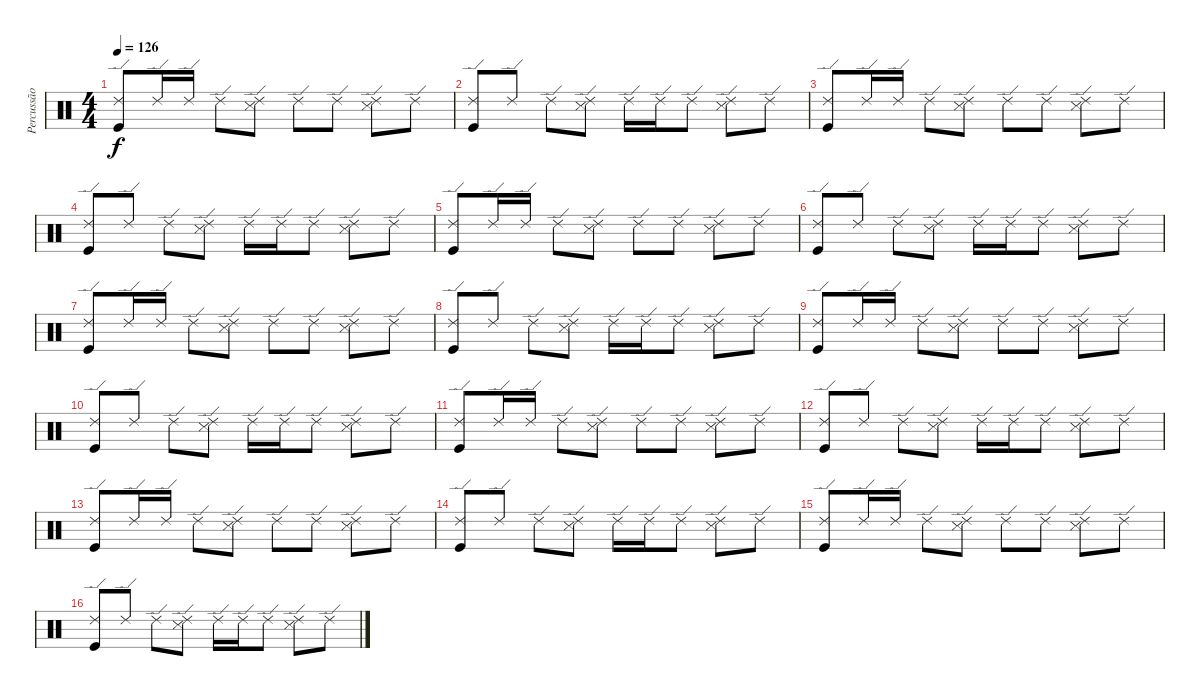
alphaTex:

\track ("Percussão" "Percussão") {instrument percussion}
\staff {score}
\articulation defaults
\ts (4 4)
\tempo 126
\clef neutral
\ks c
("Ride (edge) 2" "Kick (hit)").8{dy f} "Ride (edge) 2".16 "Ride (edge) 2".16 "Ride (edge) 2".8 ("Ride (edge) 2" "Snare (side stick) 3").8 "Ride (edge) 2".8 "Ride (edge) 2".8 ("Ride (edge) 2" "Snare (side stick) 3").8 "Ride (edge) 2".8 |
("Ride (edge) 2" "Kick (hit)").8 "Ride (edge) 2".8 "Ride (edge) 2".8 ("Ride (edge) 2" "Snare (side stick) 3").8 "Ride (edge) 2".16 "Ride (edge) 2".16 "Ride (edge) 2".8 ("Ride (edge) 2" "Snare (side stick) 3").8 "Ride (edge) 2".8 |
("Ride (edge) 2" "Kick (hit)").8 "Ride (edge) 2".16 "Ride (edge) 2".16 "Ride (edge) 2".8 ("Ride (edge) 2" "Snare (side stick) 3").8 "Ride (edge) 2".8 "Ride (edge) 2".8 ("Ride (edge) 2" "Snare (side stick) 3").8 "Ride (edge) 2".8 |
("Ride (edge) 2" "Kick (hit)").8 "Ride (edge) 2".8 "Ride (edge) 2".8 ("Ride (edge) 2" "Snare (side stick) 3").8 "Ride (edge) 2".16 "Ride (edge) 2".16 "Ride (edge) 2".8 ("Ride (edge) 2" "Snare (side stick) 3").8 "Ride (edge) 2".8 |
("Ride (edge) 2" "Kick (hit)").8 "Ride (edge) 2".16 "Ride (edge) 2".16 "Ride (edge) 2".8 ("Ride (edge) 2" "Snare (side stick) 3").8 "Ride (edge) 2".8 "Ride (edge) 2".8 ("Ride (edge) 2" "Snare (side stick) 3").8 "Ride (edge) 2".8 |
("Ride (edge) 2" "Kick (hit)").8 "Ride (edge) 2".8 "Ride (edge) 2".8 ("Ride (edge) 2" "Snare (side stick) 3").8 "Ride (edge) 2".16 "Ride (edge) 2".16 "Ride (edge) 2".8 ("Ride (edge) 2" "Snare (side stick) 3").8 "Ride (edge) 2".8 |
("Ride (edge) 2" "Kick (hit)").8 "Ride (edge) 2".16 "Ride (edge) 2".16 "Ride (edge) 2".8 ("Ride (edge) 2" "Snare (side stick) 3").8 "Ride (edge) 2".8 "Ride (edge) 2".8 ("Ride (edge) 2" "Snare (side stick) 3").8 "Ride (edge) 2".8 |
("Ride (edge) 2" "Kick (hit)").8 "Ride (edge) 2".8 "Ride (edge) 2".8 ("Ride (edge) 2" "Snare (side stick) 3").8 "Ride (edge) 2".16 "Ride (edge) 2".16 "Ride (edge) 2".8 ("Ride (edge) 2" "Snare (side stick) 3").8 "Ride (edge) 2".8 |
("Ride (edge) 2" "Kick (hit)").8 "Ride (edge) 2".16 "Ride (edge) 2".16 "Ride (edge) 2".8 ("Ride (edge) 2" "Snare (side stick) 3").8 "Ride (edge) 2".8 "Ride (edge) 2".8 ("Ride (edge) 2" "Snare (side stick) 3").8 "Ride (edge) 2".8 |
("Ride (edge) 2" "Kick (hit)").8 "Ride (edge) 2".8 "Ride (edge) 2".8 ("Ride (edge) 2" "Snare (side stick) 3").8 "Ride (edge) 2".16 "Ride (edge) 2".16 "Ride (edge) 2".8 ("Ride (edge) 2" "Snare (side stick) 3").8 "Ride (edge) 2".8 |
("Ride (edge) 2" "Kick (hit)").8 "Ride (edge) 2".16 "Ride (edge) 2".16 "Ride (edge) 2".8 ("Ride (edge) 2" "Snare (side stick) 3").8 "Ride (edge) 2".8 "Ride (edge) 2".8 ("Ride (edge) 2" "Snare (side stick) 3").8 "Ride (edge) 2".8 |
("Ride (edge) 2" "Kick (hit)").8 "Ride (edge) 2".8 "Ride (edge) 2".8 ("Ride (edge) 2" "Snare (side stick) 3").8 "Ride (edge) 2".16 "Ride (edge) 2".16 "Ride (edge) 2".8 ("Ride (edge) 2" "Snare (side stick) 3").8 "Ride (edge) 2".8 |
("Ride (edge) 2" "Kick (hit)").8 "Ride (edge) 2".16 "Ride (edge) 2".16 "Ride (edge) 2".8 ("Ride (edge) 2" "Snare (side stick) 3").8 "Ride (edge) 2".8 "Ride (edge) 2".8 ("Ride (edge) 2" "Snare (side stick) 3").8 "Ride (edge) 2".8 |
("Ride (edge) 2" "Kick (hit)").8 "Ride (edge) 2".8 "Ride (edge) 2".8 ("Ride (edge) 2" "Snare (side stick) 3").8 "Ride (edge) 2".16 "Ride (edge) 2".16 "Ride (edge) 2".8 ("Ride (edge) 2" "Snare (side stick) 3").8 "Ride (edge) 2".8 |
("Ride (edge) 2" "Kick (hit)").8 "Ride (edge) 2".16 "Ride (edge) 2".16 "Ride (edge) 2".8 ("Ride (edge) 2" "Snare (side stick) 3").8 "Ride (edge) 2".8 "Ride (edge) 2".8 ("Ride (edge) 2" "Snare (side stick) 3").8 "Ride (edge) 2".8 |
("Ride (edge) 2" "Kick (hit)").8 "Ride (edge) 2".8 "Ride (edge) 2".8 ("Ride (edge) 2" "Snare (side stick) 3").8 "Ride (edge) 2".16 "Ride (edge) 2".16 "Ride (edge) 2".8 ("Ride (edge) 2" "Snare (side stick) 3").8 "Ride (edge) 2".8
